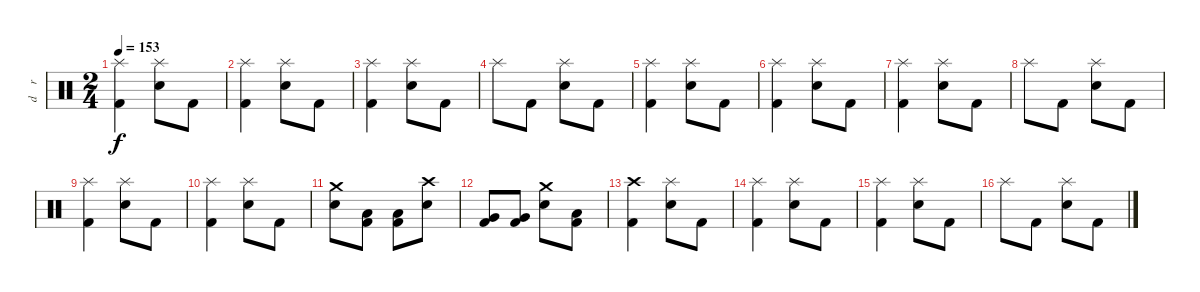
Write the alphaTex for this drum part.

\track ("d    r     u    m    s" "d    r    ") {instrument percussion}
\staff {score}
\articulation defaults
\ts (2 4)
\tempo 153
\clef neutral
\ks c
("Splash (hit)" "Kick (hit) 2").4{dy f} ("Splash (hit)" "Electric Snare (hit)").8 "Kick (hit) 2".8 |
("Splash (hit)" "Kick (hit) 2").4 ("Splash (hit)" "Electric Snare (hit)").8 "Kick (hit) 2".8 |
("Splash (hit)" "Kick (hit) 2").4 ("Splash (hit)" "Electric Snare (hit)").8 "Kick (hit) 2".8 |
"Splash (hit)".8 "Kick (hit) 2".8 ("Splash (hit)" "Electric Snare (hit)").8 "Kick (hit) 2".8 |
("Splash (hit)" "Kick (hit) 2").4 ("Splash (hit)" "Electric Snare (hit)").8 "Kick (hit) 2".8 |
("Splash (hit)" "Kick (hit) 2").4 ("Splash (hit)" "Electric Snare (hit)").8 "Kick (hit) 2".8 |
("Splash (hit)" "Kick (hit) 2").4 ("Splash (hit)" "Electric Snare (hit)").8 "Kick (hit) 2".8 |
"Splash (hit)".8 "Kick (hit) 2".8 ("Splash (hit)" "Electric Snare (hit)").8 "Kick (hit) 2".8 |
("Splash (hit)" "Kick (hit) 2").4 ("Splash (hit)" "Electric Snare (hit)").8 "Kick (hit) 2".8 |
("Splash (hit)" "Kick (hit) 2").4 ("Splash (hit)" "Electric Snare (hit)").8 "Kick (hit) 2".8 |
("Crash medium (hit)" "Electric Snare (hit)").8 ("Low Tom (hit)" "Kick (hit) 2").8 ("Low Tom (hit)" "Kick (hit) 2").8 ("Crash high (hit)" "Electric Snare (hit)").8 |
("Very Low Tom (hit)" "Kick (hit) 2").8 ("Very Low Tom (hit)" "Kick (hit) 2").8 ("Crash medium (hit)" "Electric Snare (hit)").8 ("Low Floor Tom (hit)" "Kick (hit) 2").8 |
("Crash high (hit)" "Kick (hit) 2").4 ("Splash (hit)" "Electric Snare (hit)").8 "Kick (hit) 2".8 |
("Splash (hit)" "Kick (hit) 2").4 ("Splash (hit)" "Electric Snare (hit)").8 "Kick (hit) 2".8 |
("Splash (hit)" "Kick (hit) 2").4 ("Splash (hit)" "Electric Snare (hit)").8 "Kick (hit) 2".8 |
"Splash (hit)".8 "Kick (hit) 2".8 ("Splash (hit)" "Electric Snare (hit)").8 "Kick (hit) 2".8
